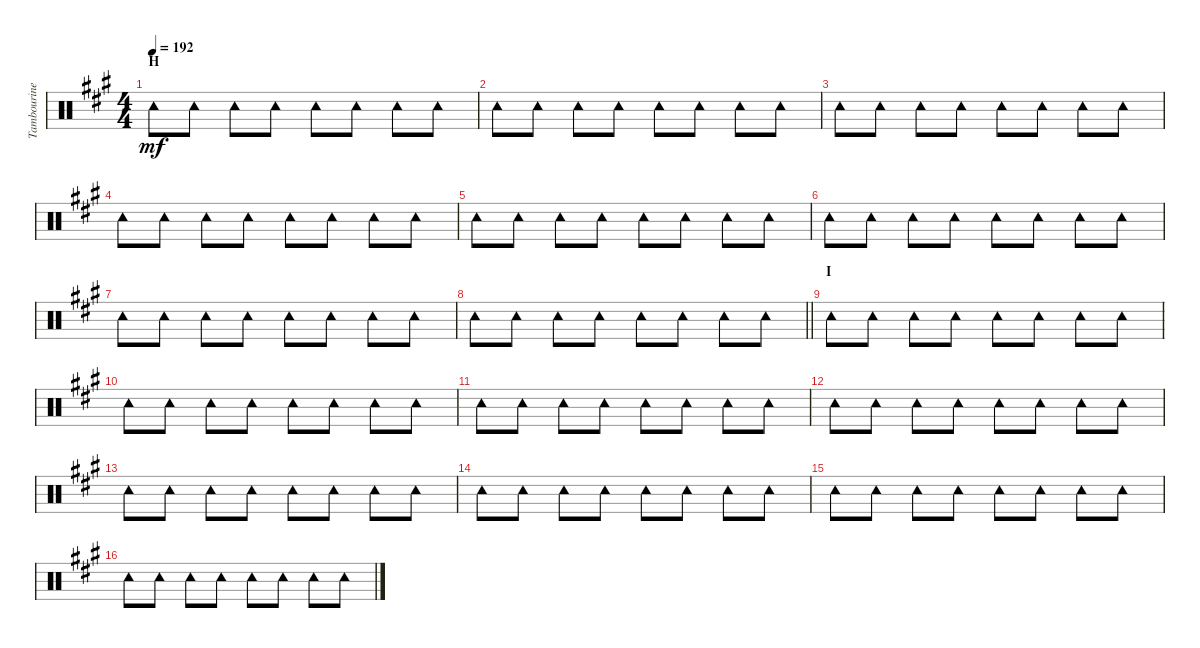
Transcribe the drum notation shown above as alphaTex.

\track ("Tambourine" "Tambourine") {instrument percussion}
\staff {score}
\articulation defaults
\ts (4 4)
\section ("" "H")
\tempo 192
\clef neutral
\ks a "Tambourine (hit)".8{dy mf} "Tambourine (hit)".8 "Tambourine (hit)".8 "Tambourine (hit)".8 "Tambourine (hit)".8 "Tambourine (hit)".8 "Tambourine (hit)".8 "Tambourine (hit)".8
|
"Tambourine (hit)".8 "Tambourine (hit)".8 "Tambourine (hit)".8 "Tambourine (hit)".8 "Tambourine (hit)".8 "Tambourine (hit)".8 "Tambourine (hit)".8 "Tambourine (hit)".8 |
"Tambourine (hit)".8 "Tambourine (hit)".8 "Tambourine (hit)".8 "Tambourine (hit)".8 "Tambourine (hit)".8 "Tambourine (hit)".8 "Tambourine (hit)".8 "Tambourine (hit)".8 |
"Tambourine (hit)".8 "Tambourine (hit)".8 "Tambourine (hit)".8 "Tambourine (hit)".8 "Tambourine (hit)".8 "Tambourine (hit)".8 "Tambourine (hit)".8 "Tambourine (hit)".8 |
"Tambourine (hit)".8 "Tambourine (hit)".8 "Tambourine (hit)".8 "Tambourine (hit)".8 "Tambourine (hit)".8 "Tambourine (hit)".8 "Tambourine (hit)".8 "Tambourine (hit)".8 |
"Tambourine (hit)".8 "Tambourine (hit)".8 "Tambourine (hit)".8 "Tambourine (hit)".8 "Tambourine (hit)".8 "Tambourine (hit)".8 "Tambourine (hit)".8 "Tambourine (hit)".8 |
"Tambourine (hit)".8 "Tambourine (hit)".8 "Tambourine (hit)".8 "Tambourine (hit)".8 "Tambourine (hit)".8 "Tambourine (hit)".8 "Tambourine (hit)".8 "Tambourine (hit)".8 |
\barLineRight lightlight "Tambourine (hit)".8 "Tambourine (hit)".8 "Tambourine (hit)".8 "Tambourine (hit)".8 "Tambourine (hit)".8 "Tambourine (hit)".8 "Tambourine (hit)".8 "Tambourine (hit)".8
|
\section ("" "I")
"Tambourine (hit)".8 "Tambourine (hit)".8 "Tambourine (hit)".8 "Tambourine (hit)".8 "Tambourine (hit)".8 "Tambourine (hit)".8 "Tambourine (hit)".8 "Tambourine (hit)".8 |
"Tambourine (hit)".8 "Tambourine (hit)".8 "Tambourine (hit)".8 "Tambourine (hit)".8 "Tambourine (hit)".8 "Tambourine (hit)".8 "Tambourine (hit)".8 "Tambourine (hit)".8 |
"Tambourine (hit)".8 "Tambourine (hit)".8 "Tambourine (hit)".8 "Tambourine (hit)".8 "Tambourine (hit)".8 "Tambourine (hit)".8 "Tambourine (hit)".8 "Tambourine (hit)".8 |
"Tambourine (hit)".8 "Tambourine (hit)".8 "Tambourine (hit)".8 "Tambourine (hit)".8 "Tambourine (hit)".8 "Tambourine (hit)".8 "Tambourine (hit)".8 "Tambourine (hit)".8 |
"Tambourine (hit)".8 "Tambourine (hit)".8 "Tambourine (hit)".8 "Tambourine (hit)".8 "Tambourine (hit)".8 "Tambourine (hit)".8 "Tambourine (hit)".8 "Tambourine (hit)".8 |
"Tambourine (hit)".8 "Tambourine (hit)".8 "Tambourine (hit)".8 "Tambourine (hit)".8 "Tambourine (hit)".8 "Tambourine (hit)".8 "Tambourine (hit)".8 "Tambourine (hit)".8 |
"Tambourine (hit)".8 "Tambourine (hit)".8 "Tambourine (hit)".8 "Tambourine (hit)".8 "Tambourine (hit)".8 "Tambourine (hit)".8 "Tambourine (hit)".8 "Tambourine (hit)".8 |
"Tambourine (hit)".8 "Tambourine (hit)".8 "Tambourine (hit)".8 "Tambourine (hit)".8 "Tambourine (hit)".8 "Tambourine (hit)".8 "Tambourine (hit)".8 "Tambourine (hit)".8
